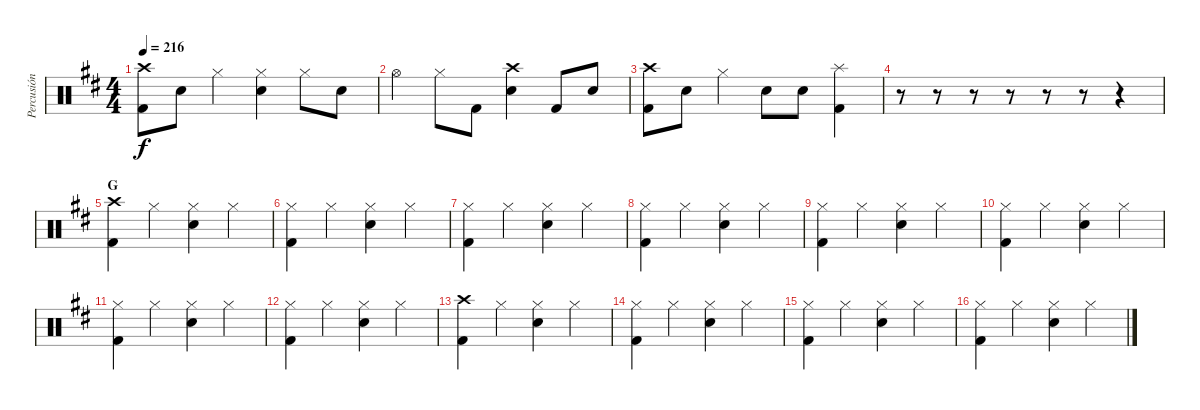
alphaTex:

\track ("Percusión" "Percusión") {instrument percussion}
\staff {score}
\articulation defaults
\ts (4 4)
\section ("" "")
\tempo 216
\clef neutral
\ks d
("Crash high (hit)" "Kick (hit) 2").8{dy f} "Electric Snare (hit)".8 "Hi-Hat (closed)".4 ("Hi-Hat (closed)" "Electric Snare (hit)").4 "Hi-Hat (closed)".8 "Electric Snare (hit)".8 |
"Hi-Hat (open)".4 "Hi-Hat (closed)".8 "Kick (hit) 2".8 ("Crash high (hit)" "Electric Snare (hit)").4 "Kick (hit) 2".8 "Electric Snare (hit)".8 |
("Crash high (hit)" "Kick (hit) 2").8 "Electric Snare (hit)".8 "Hi-Hat (closed)".4 "Electric Snare (hit)".8 "Electric Snare (hit)".8 ("Splash (hit)" "Kick (hit) 2").4 |
r.8 r.8 r.8 r.8 r.8 r.8 r.4 |
\section ("" "G")
("Crash high (hit)" "Kick (hit) 2").4 "Hi-Hat (closed)".4 ("Hi-Hat (closed)" "Electric Snare (hit)").4 "Hi-Hat (closed)".4 |
("Hi-Hat (closed)" "Kick (hit) 2").4 "Hi-Hat (closed)".4 ("Hi-Hat (closed)" "Electric Snare (hit)").4 "Hi-Hat (closed)".4 |
("Hi-Hat (closed)" "Kick (hit) 2").4 "Hi-Hat (closed)".4 ("Hi-Hat (closed)" "Electric Snare (hit)").4 "Hi-Hat (closed)".4 |
("Hi-Hat (closed)" "Kick (hit) 2").4 "Hi-Hat (closed)".4 ("Hi-Hat (closed)" "Electric Snare (hit)").4 "Hi-Hat (closed)".4 |
("Hi-Hat (closed)" "Kick (hit) 2").4 "Hi-Hat (closed)".4 ("Hi-Hat (closed)" "Electric Snare (hit)").4 "Hi-Hat (closed)".4 |
("Hi-Hat (closed)" "Kick (hit) 2").4 "Hi-Hat (closed)".4 ("Hi-Hat (closed)" "Electric Snare (hit)").4 "Hi-Hat (closed)".4 |
("Hi-Hat (closed)" "Kick (hit) 2").4 "Hi-Hat (closed)".4 ("Hi-Hat (closed)" "Electric Snare (hit)").4 "Hi-Hat (closed)".4 |
("Hi-Hat (closed)" "Kick (hit) 2").4 "Hi-Hat (closed)".4 ("Hi-Hat (closed)" "Electric Snare (hit)").4 "Hi-Hat (closed)".4 |
("Crash high (hit)" "Kick (hit) 2").4 "Hi-Hat (closed)".4 ("Hi-Hat (closed)" "Electric Snare (hit)").4 "Hi-Hat (closed)".4 |
("Hi-Hat (closed)" "Kick (hit) 2").4 "Hi-Hat (closed)".4 ("Hi-Hat (closed)" "Electric Snare (hit)").4 "Hi-Hat (closed)".4 |
("Hi-Hat (closed)" "Kick (hit) 2").4 "Hi-Hat (closed)".4 ("Hi-Hat (closed)" "Electric Snare (hit)").4 "Hi-Hat (closed)".4 |
("Hi-Hat (closed)" "Kick (hit) 2").4 "Hi-Hat (closed)".4 ("Hi-Hat (closed)" "Electric Snare (hit)").4 "Hi-Hat (closed)".4
